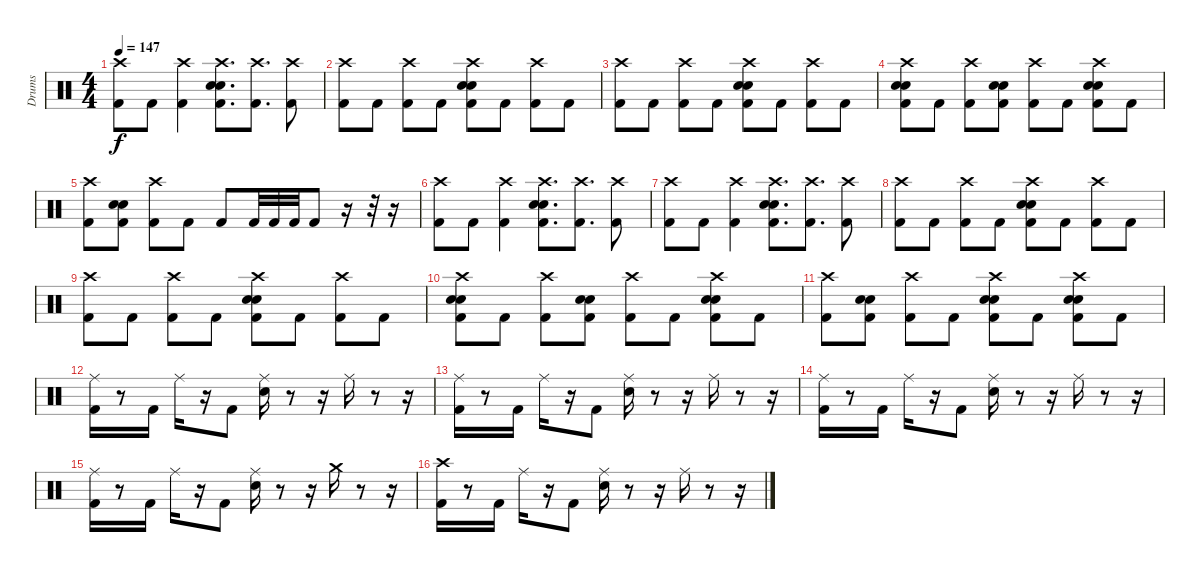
\track ("Drums" "Drums") {instrument percussion}
\staff {score}
\articulation defaults
\ts (4 4)
\tempo 147
\clef neutral
\ks c
("Crash high (hit)" "Kick (hit) 2").8{dy f} "Kick (hit) 2".8 ("Crash high (hit)" "Kick (hit) 2").4 ("Crash high (hit)" "Snare (hit) 2" "Electric Snare (hit)" "Kick (hit) 2").8{d} ("Crash high (hit)" "Kick (hit) 2").8{d} ("Crash high (hit)" "Kick (hit) 2").8 |
("Crash high (hit)" "Kick (hit) 2").8 "Kick (hit) 2".8 ("Crash high (hit)" "Kick (hit) 2").8 "Kick (hit) 2".8 ("Crash high (hit)" "Snare (hit) 2" "Electric Snare (hit)" "Kick (hit) 2").8 "Kick (hit) 2".8 ("Crash high (hit)" "Kick (hit) 2").8 "Kick (hit) 2".8 |
("Crash high (hit)" "Kick (hit) 2").8 "Kick (hit) 2".8 ("Crash high (hit)" "Kick (hit) 2").8 "Kick (hit) 2".8 ("Crash high (hit)" "Electric Snare (hit)" "Snare (hit) 2" "Kick (hit) 2").8 "Kick (hit) 2".8 ("Crash high (hit)" "Kick (hit) 2").8 "Kick (hit) 2".8 |
("Crash high (hit)" "Snare (hit) 2" "Electric Snare (hit)" "Kick (hit) 2").8 "Kick (hit) 2".8 ("Crash high (hit)" "Kick (hit) 2").8 ("Snare (hit) 2" "Electric Snare (hit)" "Kick (hit) 2").8 ("Crash high (hit)" "Kick (hit) 2").8 "Kick (hit) 2".8 ("Crash high (hit)" "Snare (hit) 2" "Electric Snare (hit)" "Kick (hit) 2").8 "Kick (hit) 2".8 |
("Crash high (hit)" "Kick (hit) 2").8 ("Snare (hit) 2" "Electric Snare (hit)" "Kick (hit) 2").8 ("Crash high (hit)" "Kick (hit) 2").8 "Kick (hit) 2".8 "Kick (hit) 2".8 "Kick (hit) 2".32 "Kick (hit) 2".32 "Kick (hit) 2".32 "Kick (hit) 2".8 r.16 r.32 r.16 |
("Crash high (hit)" "Kick (hit) 2").8 "Kick (hit) 2".8 ("Crash high (hit)" "Kick (hit) 2").4 ("Crash high (hit)" "Electric Snare (hit)" "Snare (hit) 2" "Kick (hit) 2").8{d} ("Crash high (hit)" "Kick (hit) 2").8{d} ("Crash high (hit)" "Kick (hit) 2").8 |
("Crash high (hit)" "Kick (hit) 2").8 "Kick (hit) 2".8 ("Crash high (hit)" "Kick (hit) 2").4 ("Crash high (hit)" "Snare (hit) 2" "Electric Snare (hit)" "Kick (hit) 2").8{d} ("Crash high (hit)" "Kick (hit) 2").8{d} ("Crash high (hit)" "Kick (hit) 2").8 |
("Crash high (hit)" "Kick (hit) 2").8 "Kick (hit) 2".8 ("Crash high (hit)" "Kick (hit) 2").8 "Kick (hit) 2".8 ("Crash high (hit)" "Snare (hit) 2" "Electric Snare (hit)" "Kick (hit) 2").8 "Kick (hit) 2".8 ("Crash high (hit)" "Kick (hit) 2").8 "Kick (hit) 2".8 |
("Crash high (hit)" "Kick (hit) 2").8 "Kick (hit) 2".8 ("Crash high (hit)" "Kick (hit) 2").8 "Kick (hit) 2".8 ("Crash high (hit)" "Electric Snare (hit)" "Snare (hit) 2" "Kick (hit) 2").8 "Kick (hit) 2".8 ("Crash high (hit)" "Kick (hit) 2").8 "Kick (hit) 2".8 |
("Crash high (hit)" "Snare (hit) 2" "Electric Snare (hit)" "Kick (hit) 2").8 "Kick (hit) 2".8 ("Crash high (hit)" "Kick (hit) 2").8 ("Snare (hit) 2" "Electric Snare (hit)" "Kick (hit) 2").8 ("Crash high (hit)" "Kick (hit) 2").8 "Kick (hit) 2".8 ("Crash high (hit)" "Snare (hit) 2" "Electric Snare (hit)" "Kick (hit) 2").8 "Kick (hit) 2".8 |
("Crash high (hit)" "Kick (hit) 2").8 ("Snare (hit) 2" "Electric Snare (hit)" "Kick (hit) 2").8 ("Crash high (hit)" "Kick (hit) 2").8 "Kick (hit) 2".8 ("Crash high (hit)" "Snare (hit) 2" "Electric Snare (hit)" "Kick (hit) 2").8 "Kick (hit) 2".8 ("Crash high (hit)" "Snare (hit) 2" "Electric Snare (hit)" "Kick (hit) 2").8 "Kick (hit) 2".8 |
("Ride (middle)" "Kick (hit) 2").16 r.8 "Kick (hit) 2".16 "Ride (middle)".16 r.16 "Kick (hit) 2".8 ("Ride (middle)" "Snare (hit) 2").16 r.8 r.16 "Ride (middle)".16 r.8 r.16 |
("Ride (middle)" "Kick (hit) 2").16 r.8 "Kick (hit) 2".16 "Ride (middle)".16 r.16 "Kick (hit) 2".8 ("Ride (middle)" "Snare (hit) 2").16 r.8 r.16 "Ride (middle)".16 r.8 r.16 |
("Ride (middle)" "Kick (hit) 2").16 r.8 "Kick (hit) 2".16 "Ride (middle)".16 r.16 "Kick (hit) 2".8 ("Ride (middle)" "Snare (hit) 2").16 r.8 r.16 "Ride (middle)".16 r.8 r.16 |
("Ride (middle)" "Kick (hit) 2").16 r.8 "Kick (hit) 2".16 "Ride (middle)".16 r.16 "Kick (hit) 2".8 ("Ride (middle)" "Snare (hit) 2").16 r.8 r.16 "Crash medium (hit)".16 r.8 r.16 |
("Crash high (hit)" "Kick (hit) 2").16 r.8 "Kick (hit) 2".16 "Ride (middle)".16 r.16 "Kick (hit) 2".8 ("Ride (middle)" "Snare (hit) 2").16 r.8 r.16 "Ride (middle)".16 r.8 r.16
